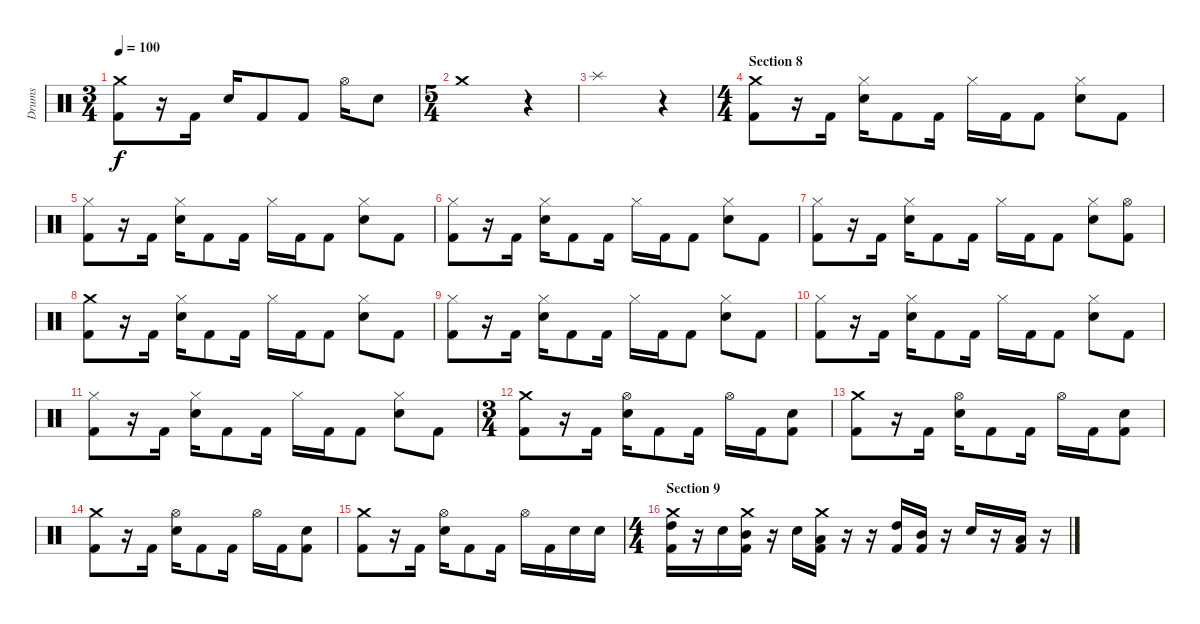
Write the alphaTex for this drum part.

\track ("Drums" "Drums") {instrument percussion}
\staff {score}
\articulation defaults
\ts (3 4)
\tempo 100
\clef neutral
\ks c
("Crash medium (hit)" "Kick (hit) 2").8{dy f} r.16 "Kick (hit) 2".16 "Snare (hit) 2".16 "Kick (hit) 2".8 "Kick (hit) 2".8 "Hi-Hat (open)".16 "Snare (hit) 2".8 |
\ts (5 4)
"Crash medium (hit)".1 r.4 |
"Splash (hit)".1 r.4 |
\ts (4 4)
\section ("" "Section 8")
("Crash medium (hit)" "Kick (hit) 2").8 r.16 "Kick (hit) 2".16 ("Hi-Hat (closed)" "Snare (hit) 2").16 "Kick (hit) 2".8 "Kick (hit) 2".16 "Hi-Hat (closed)".16 "Kick (hit) 2".16 "Kick (hit) 2".8 ("Hi-Hat (closed)" "Snare (hit) 2").8 "Kick (hit) 2".8 |
("Hi-Hat (closed)" "Kick (hit) 2").8 r.16 "Kick (hit) 2".16 ("Hi-Hat (closed)" "Snare (hit) 2").16 "Kick (hit) 2".8 "Kick (hit) 2".16 "Hi-Hat (closed)".16 "Kick (hit) 2".16 "Kick (hit) 2".8 ("Hi-Hat (closed)" "Snare (hit) 2").8 "Kick (hit) 2".8 |
("Hi-Hat (closed)" "Kick (hit) 2").8 r.16 "Kick (hit) 2".16 ("Hi-Hat (closed)" "Snare (hit) 2").16 "Kick (hit) 2".8 "Kick (hit) 2".16 "Hi-Hat (closed)".16 "Kick (hit) 2".16 "Kick (hit) 2".8 ("Hi-Hat (closed)" "Snare (hit) 2").8 "Kick (hit) 2".8 |
("Hi-Hat (closed)" "Kick (hit) 2").8 r.16 "Kick (hit) 2".16 ("Hi-Hat (closed)" "Snare (hit) 2").16 "Kick (hit) 2".8 "Kick (hit) 2".16 "Hi-Hat (closed)".16 "Kick (hit) 2".16 "Kick (hit) 2".8 ("Hi-Hat (closed)" "Snare (hit) 2").8 ("Hi-Hat (open)" "Kick (hit) 2").8 |
("Crash medium (hit)" "Kick (hit) 2").8 r.16 "Kick (hit) 2".16 ("Hi-Hat (closed)" "Snare (hit) 2").16 "Kick (hit) 2".8 "Kick (hit) 2".16 "Hi-Hat (closed)".16 "Kick (hit) 2".16 "Kick (hit) 2".8 ("Hi-Hat (closed)" "Snare (hit) 2").8 "Kick (hit) 2".8 |
("Hi-Hat (closed)" "Kick (hit) 2").8 r.16 "Kick (hit) 2".16 ("Hi-Hat (closed)" "Snare (hit) 2").16 "Kick (hit) 2".8 "Kick (hit) 2".16 "Hi-Hat (closed)".16 "Kick (hit) 2".16 "Kick (hit) 2".8 ("Hi-Hat (closed)" "Snare (hit) 2").8 "Kick (hit) 2".8 |
("Hi-Hat (closed)" "Kick (hit) 2").8 r.16 "Kick (hit) 2".16 ("Hi-Hat (closed)" "Snare (hit) 2").16 "Kick (hit) 2".8 "Kick (hit) 2".16 "Hi-Hat (closed)".16 "Kick (hit) 2".16 "Kick (hit) 2".8 ("Hi-Hat (closed)" "Snare (hit) 2").8 "Kick (hit) 2".8 |
("Hi-Hat (closed)" "Kick (hit) 2").8 r.16 "Kick (hit) 2".16 ("Hi-Hat (closed)" "Snare (hit) 2").16 "Kick (hit) 2".8 "Kick (hit) 2".16 "Hi-Hat (closed)".16 "Kick (hit) 2".16 "Kick (hit) 2".8 ("Hi-Hat (closed)" "Snare (hit) 2").8 "Kick (hit) 2".8 |
\ts (3 4)
("Crash medium (hit)" "Kick (hit) 2").8 r.16 "Kick (hit) 2".16 ("Hi-Hat (open)" "Snare (hit) 2").16 "Kick (hit) 2".8 "Kick (hit) 2".16 "Hi-Hat (open)".16 "Kick (hit) 2".16 ("Snare (hit) 2" "Kick (hit) 2").8 |
("Crash medium (hit)" "Kick (hit) 2").8 r.16 "Kick (hit) 2".16 ("Hi-Hat (open)" "Snare (hit) 2").16 "Kick (hit) 2".8 "Kick (hit) 2".16 "Hi-Hat (open)".16 "Kick (hit) 2".16 ("Snare (hit) 2" "Kick (hit) 2").8 |
("Crash medium (hit)" "Kick (hit) 2").8 r.16 "Kick (hit) 2".16 ("Hi-Hat (open)" "Snare (hit) 2").16 "Kick (hit) 2".8 "Kick (hit) 2".16 "Hi-Hat (open)".16 "Kick (hit) 2".16 ("Snare (hit) 2" "Kick (hit) 2").8 |
("Crash medium (hit)" "Kick (hit) 2").8 r.16 "Kick (hit) 2".16 ("Hi-Hat (open)" "Snare (hit) 2").16 "Kick (hit) 2".8 "Kick (hit) 2".16 "Hi-Hat (open)".16 "Kick (hit) 2".16 "Snare (hit) 2".16 "Snare (hit) 2".16 |
\ts (4 4)
\section ("" "Section 9")
("Crash medium (hit)" "High Tom (hit)" "Kick (hit) 2").16 r.16 "Snare (hit) 2".16 ("Crash medium (hit)" "Mid Tom (hit)" "Kick (hit) 2").16 r.16 "Snare (hit) 2".16 ("Crash medium (hit)" "Low Tom (hit)" "Kick (hit) 2").16 r.16 r.16 ("High Tom (hit)" "Kick (hit) 2").16 ("Mid Tom (hit)" "Kick (hit) 2").16 r.16 "Snare (hit) 2".16 r.16 ("Low Tom (hit)" "Kick (hit) 2").16 r.16
